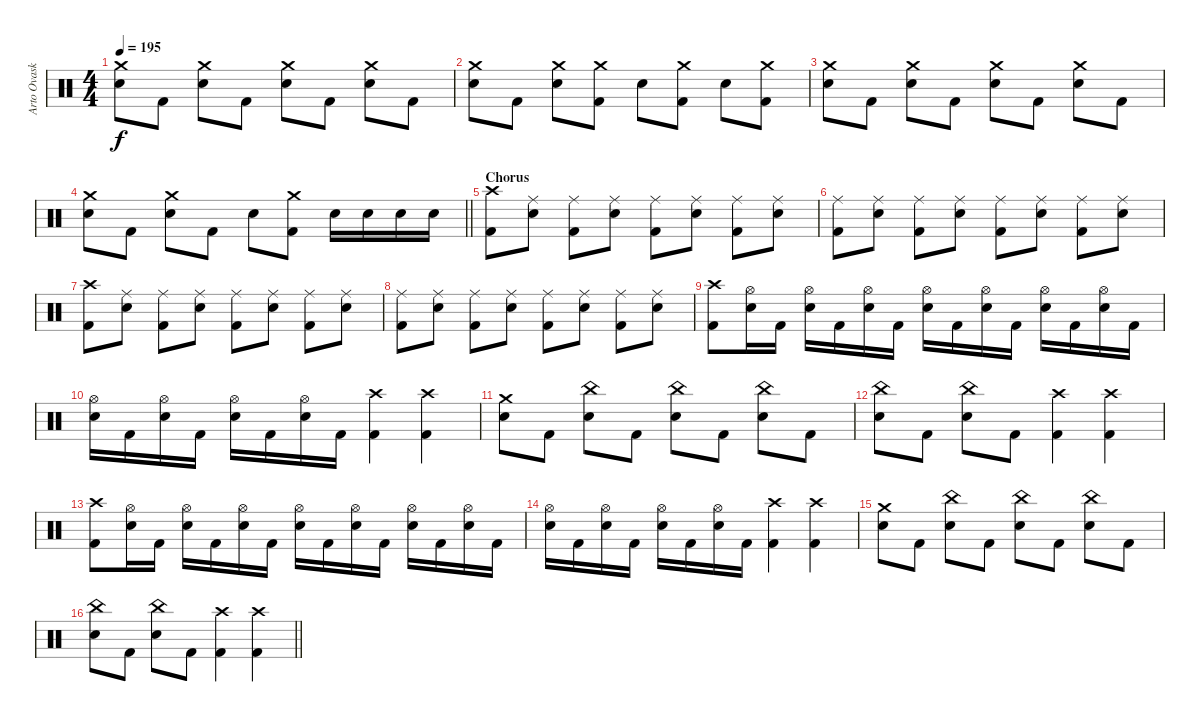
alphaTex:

\track ("Arto Ovaskainen" "Arto Ovask") {instrument percussion}
\staff {score}
\articulation defaults
\ts (4 4)
\tempo 195
\clef neutral
\ks c
("Crash medium (hit)" "Electric Snare (hit)").8{dy f} "Kick (hit) 2".8 ("Crash medium (hit)" "Electric Snare (hit)").8 "Kick (hit) 2".8 ("Crash medium (hit)" "Electric Snare (hit)").8 "Kick (hit) 2".8 ("Crash medium (hit)" "Electric Snare (hit)").8 "Kick (hit) 2".8 |
("Crash medium (hit)" "Electric Snare (hit)").8 "Kick (hit) 2".8 ("Crash medium (hit)" "Electric Snare (hit)").8 ("Crash medium (hit)" "Kick (hit) 2").8 "Electric Snare (hit)".8 ("Crash medium (hit)" "Kick (hit) 2").8 "Electric Snare (hit)".8 ("Crash medium (hit)" "Kick (hit) 2").8 |
("Crash medium (hit)" "Electric Snare (hit)").8 "Kick (hit) 2".8 ("Crash medium (hit)" "Electric Snare (hit)").8 "Kick (hit) 2".8 ("Crash medium (hit)" "Electric Snare (hit)").8 "Kick (hit) 2".8 ("Crash medium (hit)" "Electric Snare (hit)").8 "Kick (hit) 2".8 |
\barLineRight lightlight
("Crash medium (hit)" "Electric Snare (hit)").8 "Kick (hit) 2".8 ("Crash medium (hit)" "Electric Snare (hit)").8 "Kick (hit) 2".8 "Electric Snare (hit)".8 ("Crash medium (hit)" "Kick (hit) 2").8 "Electric Snare (hit)".16 "Electric Snare (hit)".16 "Electric Snare (hit)".16 "Electric Snare (hit)".16 |
\section ("" "Chorus")
("Crash high (hit)" "Kick (hit) 2").8 ("Ride (middle)" "Electric Snare (hit)").8 ("Ride (middle)" "Kick (hit) 2").8 ("Ride (middle)" "Electric Snare (hit)").8 ("Ride (middle)" "Kick (hit) 2").8 ("Ride (middle)" "Electric Snare (hit)").8 ("Ride (middle)" "Kick (hit) 2").8 ("Ride (middle)" "Electric Snare (hit)").8 |
("Ride (middle)" "Kick (hit) 2").8 ("Ride (middle)" "Electric Snare (hit)").8 ("Ride (middle)" "Kick (hit) 2").8 ("Ride (middle)" "Electric Snare (hit)").8 ("Ride (middle)" "Kick (hit) 2").8 ("Ride (middle)" "Electric Snare (hit)").8 ("Ride (middle)" "Kick (hit) 2").8 ("Ride (middle)" "Electric Snare (hit)").8 |
("Crash high (hit)" "Kick (hit) 2").8 ("Ride (middle)" "Electric Snare (hit)").8 ("Ride (middle)" "Kick (hit) 2").8 ("Ride (middle)" "Electric Snare (hit)").8 ("Ride (middle)" "Kick (hit) 2").8 ("Ride (middle)" "Electric Snare (hit)").8 ("Ride (middle)" "Kick (hit) 2").8 ("Ride (middle)" "Electric Snare (hit)").8 |
("Ride (middle)" "Kick (hit) 2").8 ("Ride (middle)" "Electric Snare (hit)").8 ("Ride (middle)" "Kick (hit) 2").8 ("Ride (middle)" "Electric Snare (hit)").8 ("Ride (middle)" "Kick (hit) 2").8 ("Ride (middle)" "Electric Snare (hit)").8 ("Ride (middle)" "Kick (hit) 2").8 ("Ride (middle)" "Electric Snare (hit)").8 |
("Crash high (hit)" "Kick (hit) 2").8 ("Hi-Hat (open)" "Electric Snare (hit)").16 "Kick (hit) 2".16 ("Hi-Hat (open)" "Electric Snare (hit)").16 "Kick (hit) 2".16 ("Hi-Hat (open)" "Electric Snare (hit)").16 "Kick (hit) 2".16 ("Hi-Hat (open)" "Electric Snare (hit)").16 "Kick (hit) 2".16 ("Hi-Hat (open)" "Electric Snare (hit)").16 "Kick (hit) 2".16 ("Hi-Hat (open)" "Electric Snare (hit)").16 "Kick (hit) 2".16 ("Hi-Hat (open)" "Electric Snare (hit)").16 "Kick (hit) 2".16 |
("Hi-Hat (open)" "Electric Snare (hit)").16 "Kick (hit) 2".16 ("Hi-Hat (open)" "Electric Snare (hit)").16 "Kick (hit) 2".16 ("Hi-Hat (open)" "Electric Snare (hit)").16 "Kick (hit) 2".16 ("Hi-Hat (open)" "Electric Snare (hit)").16 "Kick (hit) 2".16 ("Crash high (hit)" "Kick (hit) 2").4 ("Crash high (hit)" "Kick (hit) 2").4 |
("Crash medium (hit)" "Electric Snare (hit)").8 "Kick (hit) 2".8 ("China (hit)" "Electric Snare (hit)").8 "Kick (hit) 2".8 ("China (hit)" "Electric Snare (hit)").8 "Kick (hit) 2".8 ("China (hit)" "Electric Snare (hit)").8 "Kick (hit) 2".8 |
("China (hit)" "Electric Snare (hit)").8 "Kick (hit) 2".8 ("China (hit)" "Electric Snare (hit)").8 "Kick (hit) 2".8 ("Crash high (hit)" "Kick (hit) 2").4 ("Crash high (hit)" "Kick (hit) 2").4 |
("Crash high (hit)" "Kick (hit) 2").8 ("Hi-Hat (open)" "Electric Snare (hit)").16 "Kick (hit) 2".16 ("Hi-Hat (open)" "Electric Snare (hit)").16 "Kick (hit) 2".16 ("Hi-Hat (open)" "Electric Snare (hit)").16 "Kick (hit) 2".16 ("Hi-Hat (open)" "Electric Snare (hit)").16 "Kick (hit) 2".16 ("Hi-Hat (open)" "Electric Snare (hit)").16 "Kick (hit) 2".16 ("Hi-Hat (open)" "Electric Snare (hit)").16 "Kick (hit) 2".16 ("Hi-Hat (open)" "Electric Snare (hit)").16 "Kick (hit) 2".16 |
("Hi-Hat (open)" "Electric Snare (hit)").16 "Kick (hit) 2".16 ("Hi-Hat (open)" "Electric Snare (hit)").16 "Kick (hit) 2".16 ("Hi-Hat (open)" "Electric Snare (hit)").16 "Kick (hit) 2".16 ("Hi-Hat (open)" "Electric Snare (hit)").16 "Kick (hit) 2".16 ("Crash high (hit)" "Kick (hit) 2").4 ("Crash high (hit)" "Kick (hit) 2").4 |
("Crash medium (hit)" "Electric Snare (hit)").8 "Kick (hit) 2".8 ("China (hit)" "Electric Snare (hit)").8 "Kick (hit) 2".8 ("China (hit)" "Electric Snare (hit)").8 "Kick (hit) 2".8 ("China (hit)" "Electric Snare (hit)").8 "Kick (hit) 2".8 |
\barLineRight lightlight
("China (hit)" "Electric Snare (hit)").8 "Kick (hit) 2".8 ("China (hit)" "Electric Snare (hit)").8 "Kick (hit) 2".8 ("Crash high (hit)" "Kick (hit) 2").4 ("Crash high (hit)" "Kick (hit) 2").4
